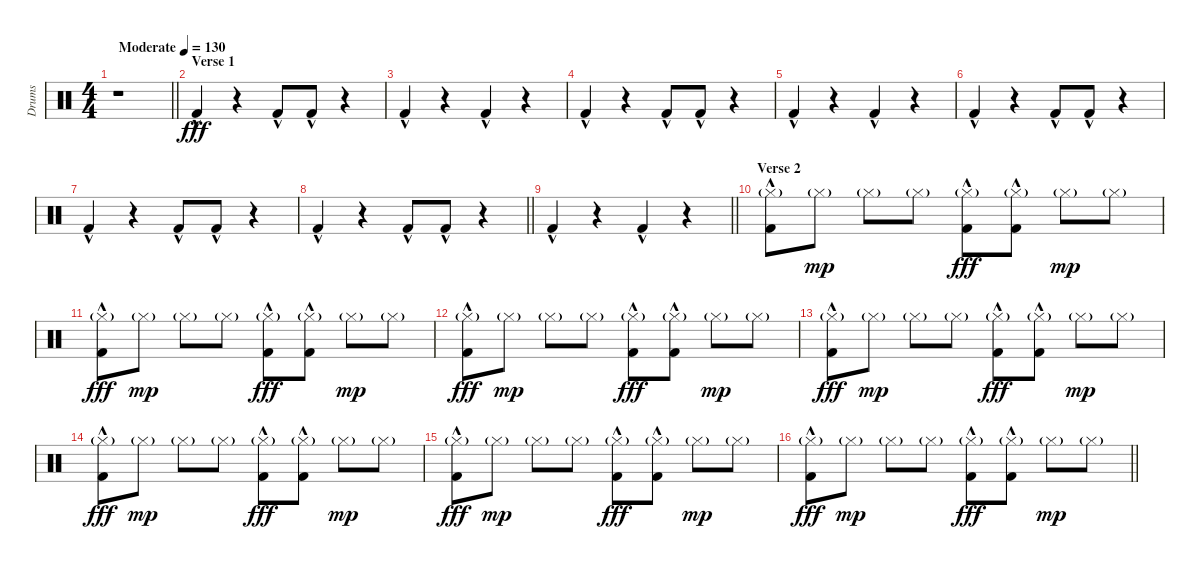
\track ("Drums" "Drums") {instrument percussion}
\staff {score}
\articulation defaults
\ts (4 4)
\tempo (130 "Moderate")
\clef neutral
\barLineRight lightlight
\ks c
r.1{dy fff} |
\section ("" "Verse 1")
"Kick (hit) 2"{hac}.4 r.4 "Kick (hit) 2"{hac}.8 "Kick (hit) 2"{hac}.8 r.4 |
"Kick (hit) 2"{hac}.4 r.4 "Kick (hit) 2"{hac}.4 r.4 |
"Kick (hit) 2"{hac}.4 r.4 "Kick (hit) 2"{hac}.8 "Kick (hit) 2"{hac}.8 r.4 |
"Kick (hit) 2"{hac}.4 r.4 "Kick (hit) 2"{hac}.4 r.4 |
"Kick (hit) 2"{hac}.4 r.4 "Kick (hit) 2"{hac}.8 "Kick (hit) 2"{hac}.8 r.4 |
"Kick (hit) 2"{hac}.4 r.4 "Kick (hit) 2"{hac}.8 "Kick (hit) 2"{hac}.8 r.4 |
\barLineRight lightlight "Kick (hit) 2"{hac}.4
r.4 "Kick (hit) 2"{hac}.8 "Kick (hit) 2"{hac}.8 r.4 |
\barLineRight lightlight "Kick (hit) 2"{hac}.4
r.4 "Kick (hit) 2"{hac}.4 r.4 |
\section ("" "Verse 2")
("Hi-Hat (closed)"{g} "Kick (hit) 2"{hac}).8 "Hi-Hat (closed)"{g}.8{dy mp} "Hi-Hat (closed)"{g}.8 "Hi-Hat (closed)"{g}.8 ("Hi-Hat (closed)"{g} "Kick (hit) 2"{hac}).8{dy fff} ("Hi-Hat (closed)"{g} "Kick (hit) 2"{hac}).8 "Hi-Hat (closed)"{g}.8{dy mp} "Hi-Hat (closed)"{g}.8 |
("Hi-Hat (closed)"{g} "Kick (hit) 2"{hac}).8{dy fff} "Hi-Hat (closed)"{g}.8{dy mp} "Hi-Hat (closed)"{g}.8 "Hi-Hat (closed)"{g}.8 ("Hi-Hat (closed)"{g} "Kick (hit) 2"{hac}).8{dy fff} ("Hi-Hat (closed)"{g} "Kick (hit) 2"{hac}).8 "Hi-Hat (closed)"{g}.8{dy mp} "Hi-Hat (closed)"{g}.8 |
("Hi-Hat (closed)"{g} "Kick (hit) 2"{hac}).8{dy fff} "Hi-Hat (closed)"{g}.8{dy mp} "Hi-Hat (closed)"{g}.8 "Hi-Hat (closed)"{g}.8 ("Hi-Hat (closed)"{g} "Kick (hit) 2"{hac}).8{dy fff} ("Hi-Hat (closed)"{g} "Kick (hit) 2"{hac}).8 "Hi-Hat (closed)"{g}.8{dy mp} "Hi-Hat (closed)"{g}.8 |
("Hi-Hat (closed)"{g} "Kick (hit) 2"{hac}).8{dy fff} "Hi-Hat (closed)"{g}.8{dy mp} "Hi-Hat (closed)"{g}.8 "Hi-Hat (closed)"{g}.8 ("Hi-Hat (closed)"{g} "Kick (hit) 2"{hac}).8{dy fff} ("Hi-Hat (closed)"{g} "Kick (hit) 2"{hac}).8 "Hi-Hat (closed)"{g}.8{dy mp} "Hi-Hat (closed)"{g}.8 |
("Hi-Hat (closed)"{g} "Kick (hit) 2"{hac}).8{dy fff} "Hi-Hat (closed)"{g}.8{dy mp} "Hi-Hat (closed)"{g}.8 "Hi-Hat (closed)"{g}.8 ("Hi-Hat (closed)"{g} "Kick (hit) 2"{hac}).8{dy fff} ("Hi-Hat (closed)"{g} "Kick (hit) 2"{hac}).8 "Hi-Hat (closed)"{g}.8{dy mp} "Hi-Hat (closed)"{g}.8 |
("Hi-Hat (closed)"{g} "Kick (hit) 2"{hac}).8{dy fff} "Hi-Hat (closed)"{g}.8{dy mp} "Hi-Hat (closed)"{g}.8 "Hi-Hat (closed)"{g}.8 ("Hi-Hat (closed)"{g} "Kick (hit) 2"{hac}).8{dy fff} ("Hi-Hat (closed)"{g} "Kick (hit) 2"{hac}).8 "Hi-Hat (closed)"{g}.8{dy mp} "Hi-Hat (closed)"{g}.8 |
\barLineRight lightlight
("Hi-Hat (closed)"{g} "Kick (hit) 2"{hac}).8{dy fff} "Hi-Hat (closed)"{g}.8{dy mp} "Hi-Hat (closed)"{g}.8 "Hi-Hat (closed)"{g}.8 ("Hi-Hat (closed)"{g} "Kick (hit) 2"{hac}).8{dy fff} ("Hi-Hat (closed)"{g} "Kick (hit) 2"{hac}).8 "Hi-Hat (closed)"{g}.8{dy mp} "Hi-Hat (closed)"{g}.8
